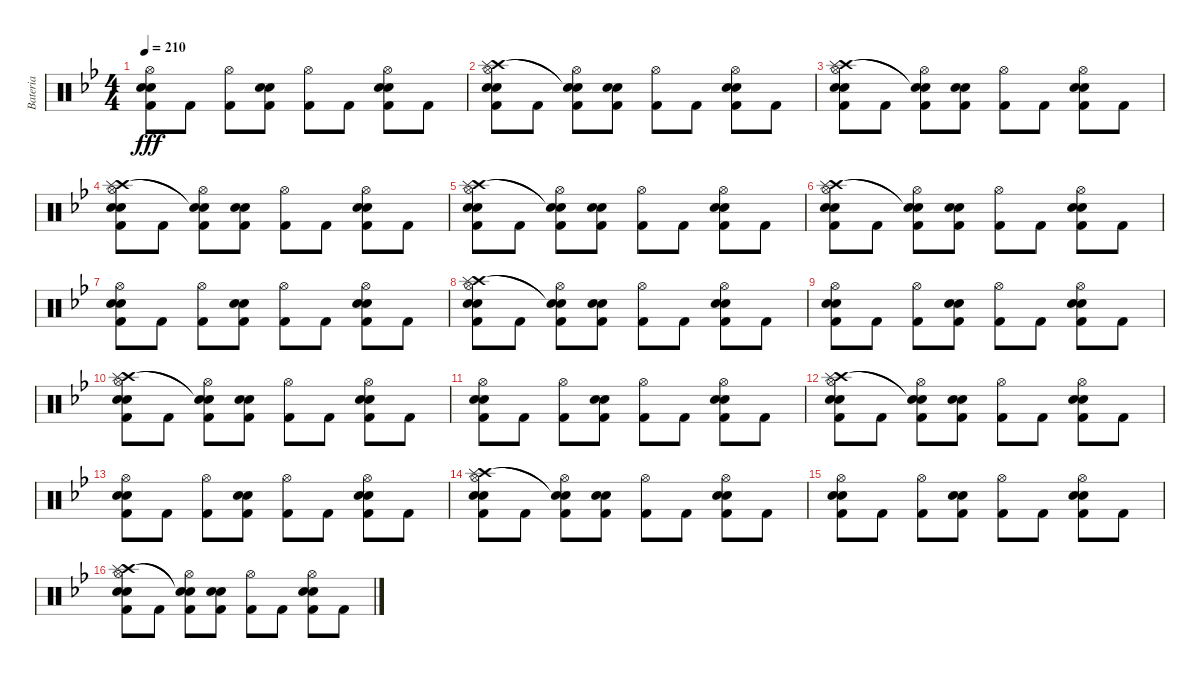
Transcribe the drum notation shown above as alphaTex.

\track ("Bateria" "Bateria") {instrument percussion}
\staff {score}
\articulation defaults
\ts (4 4)
\tempo 210
\clef neutral
\ks gminor
("Hi-Hat (open)" "Snare (hit) 2" "Kick (hit) 2" "Electric Snare (hit)").8{dy fff} "Kick (hit) 2".8 ("Hi-Hat (open)" "Kick (hit) 2").8 ("Snare (hit) 2" "Kick (hit) 2" "Electric Snare (hit)").8 ("Hi-Hat (open)" "Kick (hit) 2").8 "Kick (hit) 2".8 ("Hi-Hat (open)" "Snare (hit) 2" "Kick (hit) 2" "Electric Snare (hit)").8 "Kick (hit) 2".8 |
("Hi-Hat (open)" "Crash high (hit)" "Splash (hit)" "Snare (hit) 2" "Kick (hit) 2" "Electric Snare (hit)").8 "Kick (hit) 2".8 ("Hi-Hat (open)" "Snare (hit)"{t} "Snare (hit)"{t} "Kick (hit) 2").8 ("Snare (hit) 2" "Kick (hit) 2" "Electric Snare (hit)").8 ("Hi-Hat (open)" "Kick (hit) 2").8 "Kick (hit) 2".8 ("Hi-Hat (open)" "Snare (hit) 2" "Kick (hit) 2" "Electric Snare (hit)").8 "Kick (hit) 2".8 |
("Hi-Hat (open)" "Crash high (hit)" "Splash (hit)" "Snare (hit) 2" "Kick (hit) 2" "Electric Snare (hit)").8 "Kick (hit) 2".8 ("Hi-Hat (open)" "Snare (hit)"{t} "Snare (hit)"{t} "Kick (hit) 2").8 ("Snare (hit) 2" "Kick (hit) 2" "Electric Snare (hit)").8 ("Hi-Hat (open)" "Kick (hit) 2").8 "Kick (hit) 2".8 ("Hi-Hat (open)" "Snare (hit) 2" "Kick (hit) 2" "Electric Snare (hit)").8 "Kick (hit) 2".8 |
("Hi-Hat (open)" "Crash high (hit)" "Splash (hit)" "Snare (hit) 2" "Kick (hit) 2" "Electric Snare (hit)").8 "Kick (hit) 2".8 ("Hi-Hat (open)" "Snare (hit)"{t} "Snare (hit)"{t} "Kick (hit) 2").8 ("Snare (hit) 2" "Kick (hit) 2" "Electric Snare (hit)").8 ("Hi-Hat (open)" "Kick (hit) 2").8 "Kick (hit) 2".8 ("Hi-Hat (open)" "Snare (hit) 2" "Kick (hit) 2" "Electric Snare (hit)").8 "Kick (hit) 2".8 |
("Hi-Hat (open)" "Crash high (hit)" "Splash (hit)" "Snare (hit) 2" "Kick (hit) 2" "Electric Snare (hit)").8 "Kick (hit) 2".8 ("Hi-Hat (open)" "Snare (hit)"{t} "Snare (hit)"{t} "Kick (hit) 2").8 ("Snare (hit) 2" "Kick (hit) 2" "Electric Snare (hit)").8 ("Hi-Hat (open)" "Kick (hit) 2").8 "Kick (hit) 2".8 ("Hi-Hat (open)" "Snare (hit) 2" "Kick (hit) 2" "Electric Snare (hit)").8 "Kick (hit) 2".8 |
("Hi-Hat (open)" "Crash high (hit)" "Splash (hit)" "Snare (hit) 2" "Electric Snare (hit)" "Kick (hit) 2").8 "Kick (hit) 2".8 ("Hi-Hat (open)" "Snare (hit)"{t} "Snare (hit)"{t} "Kick (hit) 2").8 ("Snare (hit) 2" "Electric Snare (hit)" "Kick (hit) 2").8 ("Hi-Hat (open)" "Kick (hit) 2").8 "Kick (hit) 2".8 ("Hi-Hat (open)" "Snare (hit) 2" "Electric Snare (hit)" "Kick (hit) 2").8 "Kick (hit) 2".8 |
("Hi-Hat (open)" "Snare (hit) 2" "Kick (hit) 2" "Electric Snare (hit)").8 "Kick (hit) 2".8 ("Hi-Hat (open)" "Kick (hit) 2").8 ("Snare (hit) 2" "Kick (hit) 2" "Electric Snare (hit)").8 ("Hi-Hat (open)" "Kick (hit) 2").8 "Kick (hit) 2".8 ("Hi-Hat (open)" "Snare (hit) 2" "Kick (hit) 2" "Electric Snare (hit)").8 "Kick (hit) 2".8 |
("Hi-Hat (open)" "Crash high (hit)" "Splash (hit)" "Snare (hit) 2" "Kick (hit) 2" "Electric Snare (hit)").8 "Kick (hit) 2".8 ("Hi-Hat (open)" "Snare (hit)"{t} "Snare (hit)"{t} "Kick (hit) 2").8 ("Snare (hit) 2" "Kick (hit) 2" "Electric Snare (hit)").8 ("Hi-Hat (open)" "Kick (hit) 2").8 "Kick (hit) 2".8 ("Hi-Hat (open)" "Snare (hit) 2" "Kick (hit) 2" "Electric Snare (hit)").8 "Kick (hit) 2".8 |
("Hi-Hat (open)" "Snare (hit) 2" "Kick (hit) 2" "Electric Snare (hit)").8 "Kick (hit) 2".8 ("Hi-Hat (open)" "Kick (hit) 2").8 ("Snare (hit) 2" "Kick (hit) 2" "Electric Snare (hit)").8 ("Hi-Hat (open)" "Kick (hit) 2").8 "Kick (hit) 2".8 ("Hi-Hat (open)" "Snare (hit) 2" "Kick (hit) 2" "Electric Snare (hit)").8 "Kick (hit) 2".8 |
("Hi-Hat (open)" "Crash high (hit)" "Splash (hit)" "Snare (hit) 2" "Kick (hit) 2" "Electric Snare (hit)").8 "Kick (hit) 2".8 ("Hi-Hat (open)" "Snare (hit)"{t} "Snare (hit)"{t} "Kick (hit) 2").8 ("Snare (hit) 2" "Kick (hit) 2" "Electric Snare (hit)").8 ("Hi-Hat (open)" "Kick (hit) 2").8 "Kick (hit) 2".8 ("Hi-Hat (open)" "Snare (hit) 2" "Kick (hit) 2" "Electric Snare (hit)").8 "Kick (hit) 2".8 |
("Hi-Hat (open)" "Snare (hit) 2" "Kick (hit) 2" "Electric Snare (hit)").8 "Kick (hit) 2".8 ("Hi-Hat (open)" "Kick (hit) 2").8 ("Snare (hit) 2" "Kick (hit) 2" "Electric Snare (hit)").8 ("Hi-Hat (open)" "Kick (hit) 2").8 "Kick (hit) 2".8 ("Hi-Hat (open)" "Snare (hit) 2" "Kick (hit) 2" "Electric Snare (hit)").8 "Kick (hit) 2".8 |
("Hi-Hat (open)" "Crash high (hit)" "Splash (hit)" "Snare (hit) 2" "Kick (hit) 2" "Electric Snare (hit)").8 "Kick (hit) 2".8 ("Hi-Hat (open)" "Snare (hit)"{t} "Snare (hit)"{t} "Kick (hit) 2").8 ("Snare (hit) 2" "Kick (hit) 2" "Electric Snare (hit)").8 ("Hi-Hat (open)" "Kick (hit) 2").8 "Kick (hit) 2".8 ("Hi-Hat (open)" "Snare (hit) 2" "Kick (hit) 2" "Electric Snare (hit)").8 "Kick (hit) 2".8 |
("Hi-Hat (open)" "Snare (hit) 2" "Kick (hit) 2" "Electric Snare (hit)").8 "Kick (hit) 2".8 ("Hi-Hat (open)" "Kick (hit) 2").8 ("Snare (hit) 2" "Kick (hit) 2" "Electric Snare (hit)").8 ("Hi-Hat (open)" "Kick (hit) 2").8 "Kick (hit) 2".8 ("Hi-Hat (open)" "Snare (hit) 2" "Kick (hit) 2" "Electric Snare (hit)").8 "Kick (hit) 2".8 |
("Hi-Hat (open)" "Crash high (hit)" "Splash (hit)" "Snare (hit) 2" "Kick (hit) 2" "Electric Snare (hit)").8 "Kick (hit) 2".8 ("Hi-Hat (open)" "Snare (hit)"{t} "Snare (hit)"{t} "Kick (hit) 2").8 ("Snare (hit) 2" "Kick (hit) 2" "Electric Snare (hit)").8 ("Hi-Hat (open)" "Kick (hit) 2").8 "Kick (hit) 2".8 ("Hi-Hat (open)" "Snare (hit) 2" "Kick (hit) 2" "Electric Snare (hit)").8 "Kick (hit) 2".8 |
("Hi-Hat (open)" "Snare (hit) 2" "Kick (hit) 2" "Electric Snare (hit)").8 "Kick (hit) 2".8 ("Hi-Hat (open)" "Kick (hit) 2").8 ("Snare (hit) 2" "Kick (hit) 2" "Electric Snare (hit)").8 ("Hi-Hat (open)" "Kick (hit) 2").8 "Kick (hit) 2".8 ("Hi-Hat (open)" "Snare (hit) 2" "Kick (hit) 2" "Electric Snare (hit)").8 "Kick (hit) 2".8 |
("Hi-Hat (open)" "Crash high (hit)" "Splash (hit)" "Snare (hit) 2" "Kick (hit) 2" "Electric Snare (hit)").8 "Kick (hit) 2".8 ("Hi-Hat (open)" "Snare (hit)"{t} "Snare (hit)"{t} "Kick (hit) 2").8 ("Snare (hit) 2" "Kick (hit) 2" "Electric Snare (hit)").8 ("Hi-Hat (open)" "Kick (hit) 2").8 "Kick (hit) 2".8 ("Hi-Hat (open)" "Snare (hit) 2" "Kick (hit) 2" "Electric Snare (hit)").8 "Kick (hit) 2".8
